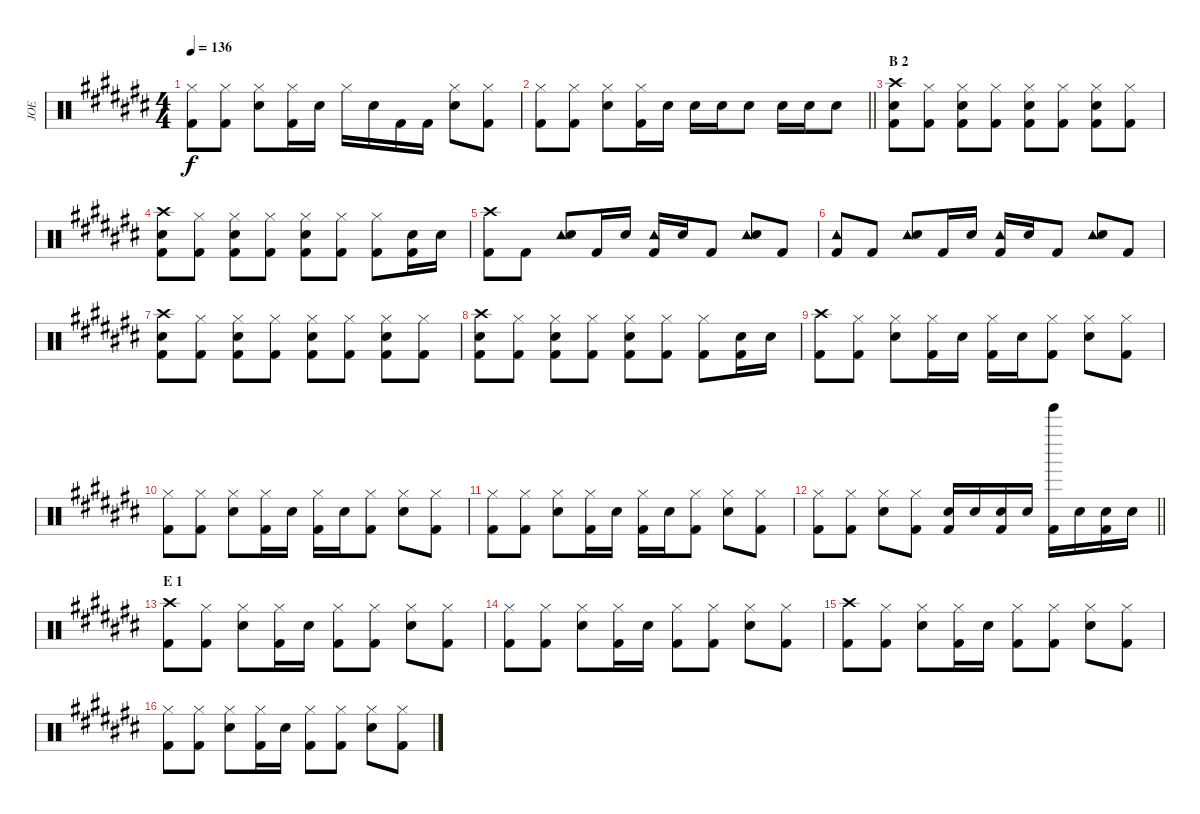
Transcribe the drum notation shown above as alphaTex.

\track ("JOE" "JOE") {instrument percussion}
\staff {score}
\articulation defaults
\ts (4 4)
\tempo 136
\clef neutral
\ks c#
("Hi-Hat (closed)" "Kick (hit) 2").8{dy f} ("Hi-Hat (closed)" "Kick (hit) 2").8 ("Hi-Hat (closed)" "Snare (hit) 2").8 ("Hi-Hat (closed)" "Kick (hit) 2").16 "Snare (hit) 2".16 "Hi-Hat (closed)".16 "Snare (hit) 2".16 "Kick (hit) 2".16 "Kick (hit) 2".16 ("Hi-Hat (closed)" "Snare (hit) 2").8 ("Hi-Hat (closed)" "Kick (hit) 2").8 |
\barLineRight lightlight
("Hi-Hat (closed)" "Kick (hit) 2").8 ("Hi-Hat (closed)" "Kick (hit) 2").8 ("Hi-Hat (closed)" "Snare (hit) 2").8 ("Hi-Hat (closed)" "Kick (hit) 2").16 "Snare (hit) 2".16 "Snare (hit) 2".16 "Snare (hit) 2".16 "Snare (hit) 2".8 "Snare (hit) 2".16 "Snare (hit) 2".16 "Snare (hit) 2".8 |
\section ("" "B 2")
("Crash high (hit)" "Snare (hit) 2" "Kick (hit) 2").8 ("Hi-Hat (closed)" "Kick (hit) 2").8 ("Hi-Hat (closed)" "Snare (hit) 2" "Kick (hit) 2").8 ("Hi-Hat (closed)" "Kick (hit) 2").8 ("Hi-Hat (closed)" "Snare (hit) 2" "Kick (hit) 2").8 ("Hi-Hat (closed)" "Kick (hit) 2").8 ("Hi-Hat (closed)" "Snare (hit) 2" "Kick (hit) 2").8 ("Hi-Hat (closed)" "Kick (hit) 2").8 |
("Crash high (hit)" "Snare (hit) 2" "Kick (hit) 2").8 ("Hi-Hat (closed)" "Kick (hit) 2").8 ("Hi-Hat (closed)" "Snare (hit) 2" "Kick (hit) 2").8 ("Hi-Hat (closed)" "Kick (hit) 2").8 ("Hi-Hat (closed)" "Snare (hit) 2" "Kick (hit) 2").8 ("Hi-Hat (closed)" "Kick (hit) 2").8 ("Hi-Hat (closed)" "Kick (hit) 2").8 ("Snare (hit) 2" "Kick (hit) 2").16 "Snare (hit) 2".16 |
("Crash high (hit)" "Kick (hit) 2").8 "Kick (hit) 2".8 ("Tambourine (hit)" "Snare (hit) 2").8 "Kick (hit) 2".16 "Snare (hit) 2".16 ("Tambourine (hit)" "Kick (hit) 2").16 "Snare (hit) 2".16 "Kick (hit) 2".8 ("Tambourine (hit)" "Snare (hit) 2").8 "Kick (hit) 2".8 |
("Tambourine (hit)" "Kick (hit) 2").8 "Kick (hit) 2".8 ("Tambourine (hit)" "Snare (hit) 2").8 "Kick (hit) 2".16 "Snare (hit) 2".16 ("Tambourine (hit)" "Kick (hit) 2").16 "Snare (hit) 2".16 "Kick (hit) 2".8 ("Tambourine (hit)" "Snare (hit) 2").8 "Kick (hit) 2".8 |
("Crash high (hit)" "Snare (hit) 2" "Kick (hit) 2").8 ("Hi-Hat (closed)" "Kick (hit) 2").8 ("Hi-Hat (closed)" "Snare (hit) 2" "Kick (hit) 2").8 ("Hi-Hat (closed)" "Kick (hit) 2").8 ("Hi-Hat (closed)" "Snare (hit) 2" "Kick (hit) 2").8 ("Hi-Hat (closed)" "Kick (hit) 2").8 ("Hi-Hat (closed)" "Snare (hit) 2" "Kick (hit) 2").8 ("Hi-Hat (closed)" "Kick (hit) 2").8 |
("Crash high (hit)" "Snare (hit) 2" "Kick (hit) 2").8 ("Hi-Hat (closed)" "Kick (hit) 2").8 ("Hi-Hat (closed)" "Snare (hit) 2" "Kick (hit) 2").8 ("Hi-Hat (closed)" "Kick (hit) 2").8 ("Hi-Hat (closed)" "Snare (hit) 2" "Kick (hit) 2").8 ("Hi-Hat (closed)" "Kick (hit) 2").8 ("Hi-Hat (closed)" "Kick (hit) 2").8 ("Snare (hit) 2" "Kick (hit) 2").16 "Snare (hit) 2".16 |
("Crash high (hit)" "Kick (hit) 2").8 ("Hi-Hat (closed)" "Kick (hit) 2").8 ("Hi-Hat (closed)" "Snare (hit) 2").8 ("Hi-Hat (closed)" "Kick (hit) 2").16 "Snare (hit) 2".16 ("Hi-Hat (closed)" "Kick (hit) 2").16 "Snare (hit) 2".16 ("Hi-Hat (closed)" "Kick (hit) 2").8 ("Hi-Hat (closed)" "Snare (hit) 2").8 ("Hi-Hat (closed)" "Kick (hit) 2").8 |
("Hi-Hat (closed)" "Kick (hit) 2").8 ("Hi-Hat (closed)" "Kick (hit) 2").8 ("Hi-Hat (closed)" "Snare (hit) 2").8 ("Hi-Hat (closed)" "Kick (hit) 2").16 "Snare (hit) 2".16 ("Hi-Hat (closed)" "Kick (hit) 2").16 "Snare (hit) 2".16 ("Hi-Hat (closed)" "Kick (hit) 2").8 ("Hi-Hat (closed)" "Snare (hit) 2").8 ("Hi-Hat (closed)" "Kick (hit) 2").8 |
("Hi-Hat (closed)" "Kick (hit) 2").8 ("Hi-Hat (closed)" "Kick (hit) 2").8 ("Hi-Hat (closed)" "Snare (hit) 2").8 ("Hi-Hat (closed)" "Kick (hit) 2").16 "Snare (hit) 2".16 ("Hi-Hat (closed)" "Kick (hit) 2").16 "Snare (hit) 2".16 ("Hi-Hat (closed)" "Kick (hit) 2").8 ("Hi-Hat (closed)" "Snare (hit) 2").8 ("Hi-Hat (closed)" "Kick (hit) 2").8 |
\barLineRight lightlight
("Hi-Hat (closed)" "Kick (hit) 2").8 ("Hi-Hat (closed)" "Kick (hit) 2").8 ("Hi-Hat (closed)" "Snare (hit) 2").8 ("Hi-Hat (closed)" "Kick (hit) 2").8 ("Snare (hit) 2" "Kick (hit) 2").16 "Snare (hit) 2".16 ("Snare (hit) 2" "Kick (hit) 2").16 "Snare (hit) 2".16 ("Tinkle Bell (hit)" "Kick (hit) 2").16 "Snare (hit) 2".16 ("Snare (hit) 2" "Kick (hit) 2").16 "Snare (hit) 2".16 |
\section ("" "E 1")
("Crash high (hit)" "Kick (hit) 2").8 ("Hi-Hat (closed)" "Kick (hit) 2").8 ("Hi-Hat (closed)" "Snare (hit) 2").8 ("Hi-Hat (closed)" "Kick (hit) 2").16 "Snare (hit) 2".16 ("Hi-Hat (closed)" "Kick (hit) 2").8 ("Hi-Hat (closed)" "Kick (hit) 2").8 ("Hi-Hat (closed)" "Snare (hit) 2").8 ("Hi-Hat (closed)" "Kick (hit) 2").8 |
("Hi-Hat (closed)" "Kick (hit) 2").8 ("Hi-Hat (closed)" "Kick (hit) 2").8 ("Hi-Hat (closed)" "Snare (hit) 2").8 ("Hi-Hat (closed)" "Kick (hit) 2").16 "Snare (hit) 2".16 ("Hi-Hat (closed)" "Kick (hit) 2").8 ("Hi-Hat (closed)" "Kick (hit) 2").8 ("Hi-Hat (closed)" "Snare (hit) 2").8 ("Hi-Hat (closed)" "Kick (hit) 2").8 |
("Crash high (hit)" "Kick (hit) 2").8 ("Hi-Hat (closed)" "Kick (hit) 2").8 ("Hi-Hat (closed)" "Snare (hit) 2").8 ("Hi-Hat (closed)" "Kick (hit) 2").16 "Snare (hit) 2".16 ("Hi-Hat (closed)" "Kick (hit) 2").8 ("Hi-Hat (closed)" "Kick (hit) 2").8 ("Hi-Hat (closed)" "Snare (hit) 2").8 ("Hi-Hat (closed)" "Kick (hit) 2").8 |
("Hi-Hat (closed)" "Kick (hit) 2").8 ("Hi-Hat (closed)" "Kick (hit) 2").8 ("Hi-Hat (closed)" "Snare (hit) 2").8 ("Hi-Hat (closed)" "Kick (hit) 2").16 "Snare (hit) 2".16 ("Hi-Hat (closed)" "Kick (hit) 2").8 ("Hi-Hat (closed)" "Kick (hit) 2").8 ("Hi-Hat (closed)" "Snare (hit) 2").8 ("Hi-Hat (closed)" "Kick (hit) 2").8
